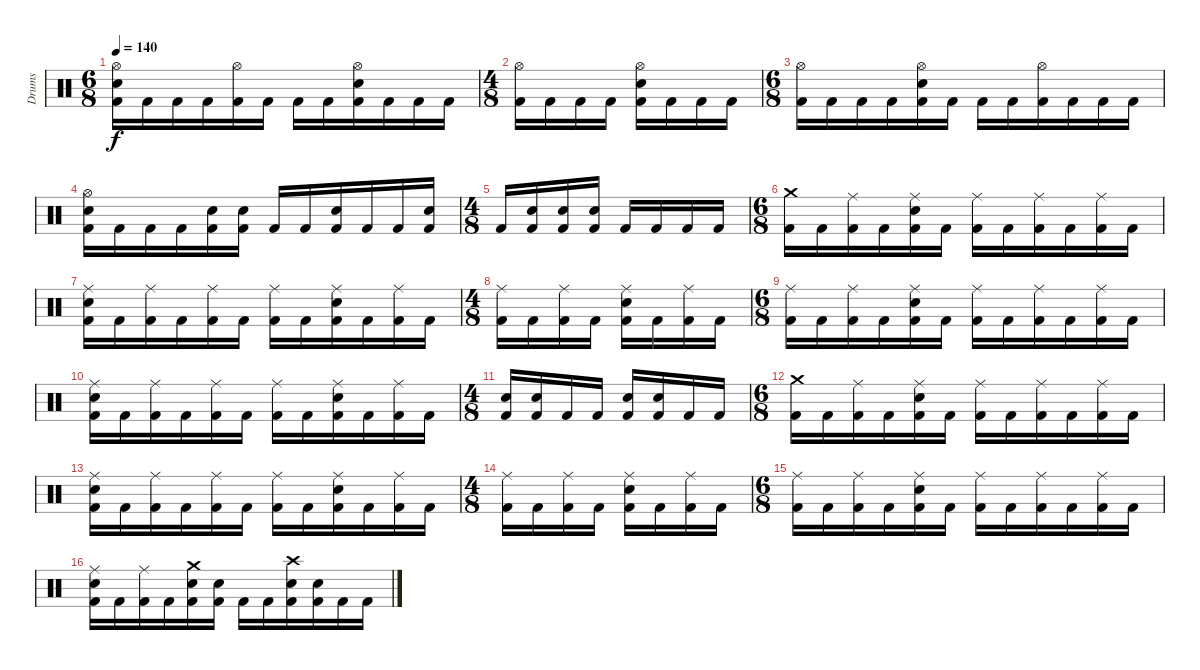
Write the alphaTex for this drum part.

\track ("Drums" "Drums") {instrument percussion}
\staff {score}
\articulation defaults
\ts (6 8)
\tempo 140
\clef neutral
\ks c
("Hi-Hat (open)" "Electric Snare (hit)" "Kick (hit) 2").16{dy f} "Kick (hit) 2".16 "Kick (hit) 2".16 "Kick (hit) 2".16 ("Hi-Hat (open)" "Kick (hit) 2").16 "Kick (hit) 2".16 "Kick (hit) 2".16 "Kick (hit) 2".16 ("Hi-Hat (open)" "Electric Snare (hit)" "Kick (hit) 2").16 "Kick (hit) 2".16 "Kick (hit) 2".16 "Kick (hit) 2".16 |
\ts (4 8)
("Hi-Hat (open)" "Kick (hit) 2").16 "Kick (hit) 2".16 "Kick (hit) 2".16 "Kick (hit) 2".16 ("Hi-Hat (open)" "Electric Snare (hit)" "Kick (hit) 2").16 "Kick (hit) 2".16 "Kick (hit) 2".16 "Kick (hit) 2".16 |
\ts (6 8)
("Hi-Hat (open)" "Kick (hit) 2").16 "Kick (hit) 2".16 "Kick (hit) 2".16 "Kick (hit) 2".16 ("Hi-Hat (open)" "Electric Snare (hit)" "Kick (hit) 2").16 "Kick (hit) 2".16 "Kick (hit) 2".16 "Kick (hit) 2".16 ("Hi-Hat (open)" "Kick (hit) 2").16 "Kick (hit) 2".16 "Kick (hit) 2".16 "Kick (hit) 2".16 |
("Hi-Hat (open)" "Electric Snare (hit)" "Kick (hit) 2").16 "Kick (hit) 2".16 "Kick (hit) 2".16 "Kick (hit) 2".16 ("Electric Snare (hit)" "Kick (hit) 2").16 ("Electric Snare (hit)" "Kick (hit) 2").16 "Kick (hit) 2".16 "Kick (hit) 2".16 ("Electric Snare (hit)" "Kick (hit) 2").16 "Kick (hit) 2".16 "Kick (hit) 2".16 ("Electric Snare (hit)" "Kick (hit) 2").16 |
\ts (4 8)
"Kick (hit) 2".16 ("Electric Snare (hit)" "Kick (hit) 2").16 ("Electric Snare (hit)" "Kick (hit) 2").16 ("Electric Snare (hit)" "Kick (hit) 2").16 "Kick (hit) 2".16 "Kick (hit) 2".16 "Kick (hit) 2".16 "Kick (hit) 2".16 |
\ts (6 8)
\section ("" "")
("Crash medium (hit)" "Kick (hit) 2").16 "Kick (hit) 2".16 ("Ride (middle)" "Kick (hit) 2").16 "Kick (hit) 2".16 ("Ride (middle)" "Electric Snare (hit)" "Kick (hit) 2").16 "Kick (hit) 2".16 ("Ride (middle)" "Kick (hit) 2").16 "Kick (hit) 2".16 ("Ride (middle)" "Kick (hit) 2").16 "Kick (hit) 2".16 ("Ride (middle)" "Kick (hit) 2").16 "Kick (hit) 2".16 |
("Ride (middle)" "Electric Snare (hit)" "Kick (hit) 2").16 "Kick (hit) 2".16 ("Ride (middle)" "Kick (hit) 2").16 "Kick (hit) 2".16 ("Ride (middle)" "Kick (hit) 2").16 "Kick (hit) 2".16 ("Ride (middle)" "Kick (hit) 2").16 "Kick (hit) 2".16 ("Ride (middle)" "Electric Snare (hit)" "Kick (hit) 2").16 "Kick (hit) 2".16 ("Ride (middle)" "Kick (hit) 2").16 "Kick (hit) 2".16 |
\ts (4 8)
("Ride (middle)" "Kick (hit) 2").16 "Kick (hit) 2".16 ("Ride (middle)" "Kick (hit) 2").16 "Kick (hit) 2".16 ("Ride (middle)" "Electric Snare (hit)" "Kick (hit) 2").16 "Kick (hit) 2".16 ("Ride (middle)" "Kick (hit) 2").16 "Kick (hit) 2".16 |
\ts (6 8)
("Ride (middle)" "Kick (hit) 2").16 "Kick (hit) 2".16 ("Ride (middle)" "Kick (hit) 2").16 "Kick (hit) 2".16 ("Ride (middle)" "Electric Snare (hit)" "Kick (hit) 2").16 "Kick (hit) 2".16 ("Ride (middle)" "Kick (hit) 2").16 "Kick (hit) 2".16 ("Ride (middle)" "Kick (hit) 2").16 "Kick (hit) 2".16 ("Ride (middle)" "Kick (hit) 2").16 "Kick (hit) 2".16 |
("Ride (middle)" "Electric Snare (hit)" "Kick (hit) 2").16 "Kick (hit) 2".16 ("Ride (middle)" "Kick (hit) 2").16 "Kick (hit) 2".16 ("Ride (middle)" "Kick (hit) 2").16 "Kick (hit) 2".16 ("Ride (middle)" "Kick (hit) 2").16 "Kick (hit) 2".16 ("Ride (middle)" "Electric Snare (hit)" "Kick (hit) 2").16 "Kick (hit) 2".16 ("Ride (middle)" "Kick (hit) 2").16 "Kick (hit) 2".16 |
\ts (4 8)
("Electric Snare (hit)" "Kick (hit) 2").16 ("Electric Snare (hit)" "Kick (hit) 2").16 "Kick (hit) 2".16 "Kick (hit) 2".16 ("Electric Snare (hit)" "Kick (hit) 2").16 ("Electric Snare (hit)" "Kick (hit) 2").16 "Kick (hit) 2".16 "Kick (hit) 2".16 |
\ts (6 8)
("Crash medium (hit)" "Kick (hit) 2").16 "Kick (hit) 2".16 ("Ride (middle)" "Kick (hit) 2").16 "Kick (hit) 2".16 ("Ride (middle)" "Electric Snare (hit)" "Kick (hit) 2").16 "Kick (hit) 2".16 ("Ride (middle)" "Kick (hit) 2").16 "Kick (hit) 2".16 ("Ride (middle)" "Kick (hit) 2").16 "Kick (hit) 2".16 ("Ride (middle)" "Kick (hit) 2").16 "Kick (hit) 2".16 |
("Ride (middle)" "Electric Snare (hit)" "Kick (hit) 2").16 "Kick (hit) 2".16 ("Ride (middle)" "Kick (hit) 2").16 "Kick (hit) 2".16 ("Ride (middle)" "Kick (hit) 2").16 "Kick (hit) 2".16 ("Ride (middle)" "Kick (hit) 2").16 "Kick (hit) 2".16 ("Ride (middle)" "Electric Snare (hit)" "Kick (hit) 2").16 "Kick (hit) 2".16 ("Ride (middle)" "Kick (hit) 2").16 "Kick (hit) 2".16 |
\ts (4 8)
("Ride (middle)" "Kick (hit) 2").16 "Kick (hit) 2".16 ("Ride (middle)" "Kick (hit) 2").16 "Kick (hit) 2".16 ("Ride (middle)" "Electric Snare (hit)" "Kick (hit) 2").16 "Kick (hit) 2".16 ("Ride (middle)" "Kick (hit) 2").16 "Kick (hit) 2".16 |
\ts (6 8)
("Ride (middle)" "Kick (hit) 2").16 "Kick (hit) 2".16 ("Ride (middle)" "Kick (hit) 2").16 "Kick (hit) 2".16 ("Ride (middle)" "Electric Snare (hit)" "Kick (hit) 2").16 "Kick (hit) 2".16 ("Ride (middle)" "Kick (hit) 2").16 "Kick (hit) 2".16 ("Ride (middle)" "Kick (hit) 2").16 "Kick (hit) 2".16 ("Ride (middle)" "Kick (hit) 2").16 "Kick (hit) 2".16 |
("Ride (middle)" "Electric Snare (hit)" "Kick (hit) 2").16 "Kick (hit) 2".16 ("Ride (middle)" "Kick (hit) 2").16 "Kick (hit) 2".16 ("Crash medium (hit)" "Electric Snare (hit)" "Kick (hit) 2").16 ("Electric Snare (hit)" "Kick (hit) 2").16 "Kick (hit) 2".16 "Kick (hit) 2".16 ("Crash high (hit)" "Electric Snare (hit)" "Kick (hit) 2").16 ("Electric Snare (hit)" "Kick (hit) 2").16 "Kick (hit) 2".16 "Kick (hit) 2".16
